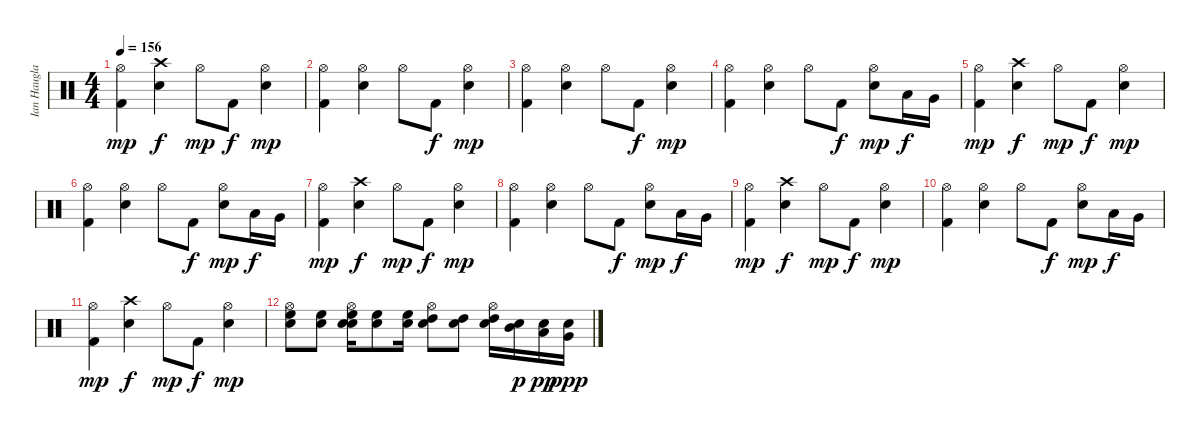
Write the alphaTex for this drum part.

\track ("Ian Haugland" "Ian Haugla") {instrument percussion}
\staff {score}
\articulation defaults
\ts (4 4)
\tempo 156
\clef neutral
\ks c
("Kick (hit) 2" "Hi-Hat (open)").4{dy mp} ("Crash high (hit)" "Snare (hit) 2").4{dy f} "Hi-Hat (open)".8{dy mp} "Kick (hit) 2".8{dy f} ("Hi-Hat (open)" "Snare (hit) 2").4{dy mp} |
("Kick (hit) 2" "Hi-Hat (open)").4 ("Hi-Hat (open)" "Snare (hit) 2").4 "Hi-Hat (open)".8 "Kick (hit) 2".8{dy f} ("Hi-Hat (open)" "Snare (hit) 2").4{dy mp} |
("Kick (hit) 2" "Hi-Hat (open)").4 ("Hi-Hat (open)" "Snare (hit) 2").4 "Hi-Hat (open)".8 "Kick (hit) 2".8{dy f} ("Hi-Hat (open)" "Snare (hit) 2").4{dy mp} |
("Kick (hit) 2" "Hi-Hat (open)").4 ("Hi-Hat (open)" "Snare (hit) 2").4 "Hi-Hat (open)".8 "Kick (hit) 2".8{dy f} ("Hi-Hat (open)" "Snare (hit) 2").8{dy mp} "Low Tom (hit)".16{dy f} "Very Low Tom (hit)".16 |
("Kick (hit) 2" "Hi-Hat (open)").4{dy mp} ("Crash high (hit)" "Snare (hit) 2").4{dy f} "Hi-Hat (open)".8{dy mp} "Kick (hit) 2".8{dy f} ("Hi-Hat (open)" "Snare (hit) 2").4{dy mp} |
("Kick (hit) 2" "Hi-Hat (open)").4 ("Hi-Hat (open)" "Snare (hit) 2").4 "Hi-Hat (open)".8 "Kick (hit) 2".8{dy f} ("Hi-Hat (open)" "Snare (hit) 2").8{dy mp} "Low Tom (hit)".16{dy f} "Very Low Tom (hit)".16 |
("Kick (hit) 2" "Hi-Hat (open)").4{dy mp} ("Crash high (hit)" "Snare (hit) 2").4{dy f} "Hi-Hat (open)".8{dy mp} "Kick (hit) 2".8{dy f} ("Hi-Hat (open)" "Snare (hit) 2").4{dy mp} |
("Kick (hit) 2" "Hi-Hat (open)").4 ("Hi-Hat (open)" "Snare (hit) 2").4 "Hi-Hat (open)".8 "Kick (hit) 2".8{dy f} ("Hi-Hat (open)" "Snare (hit) 2").8{dy mp} "Low Tom (hit)".16{dy f} "Very Low Tom (hit)".16 |
("Kick (hit) 2" "Hi-Hat (open)").4{dy mp} ("Crash high (hit)" "Snare (hit) 2").4{dy f} "Hi-Hat (open)".8{dy mp} "Kick (hit) 2".8{dy f} ("Hi-Hat (open)" "Snare (hit) 2").4{dy mp} |
("Kick (hit) 2" "Hi-Hat (open)").4 ("Hi-Hat (open)" "Snare (hit) 2").4 "Hi-Hat (open)".8 "Kick (hit) 2".8{dy f} ("Hi-Hat (open)" "Snare (hit) 2").8{dy mp} "Low Tom (hit)".16{dy f} "Very Low Tom (hit)".16 |
("Kick (hit) 2" "Hi-Hat (open)").4{dy mp} ("Crash high (hit)" "Snare (hit) 2").4{dy f} "Hi-Hat (open)".8{dy mp} "Kick (hit) 2".8{dy f} ("Hi-Hat (open)" "Snare (hit) 2").4{dy mp} |
("Hi-Hat (open)" "High Floor Tom (hit)" "Hand Clap (hit)").8 ("High Floor Tom (hit)" "Hand Clap (hit)").8 ("Hi-Hat (open)" "High Floor Tom (hit)" "Hand Clap (hit)" "Snare (hit) 2").16 ("High Floor Tom (hit)" "Hand Clap (hit)").8 ("High Floor Tom (hit)" "Hand Clap (hit)").16 ("Hi-Hat (open)" "High Tom (hit)" "Hand Clap (hit)").8 ("High Tom (hit)" "Hand Clap (hit)").8 ("Hi-Hat (open)" "High Tom (hit)" "Hand Clap (hit)").16 ("Mid Tom (hit)" "Hand Clap (hit)").16{dy p} ("Low Tom (hit)" "Hand Clap (hit)").16{dy pp} ("Very Low Tom (hit)" "Hand Clap (hit)").16{dy ppp}
